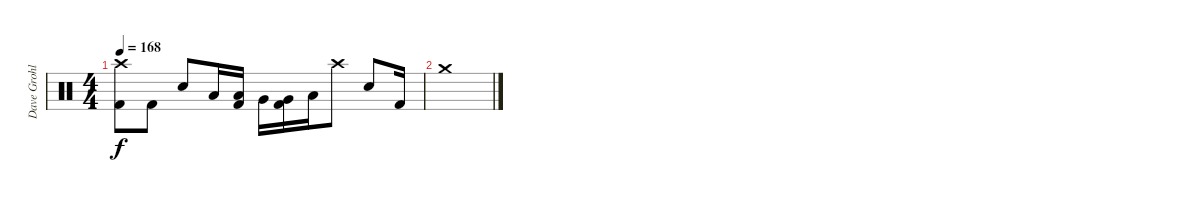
\track ("Dave Grohl - Drums" "Dave Grohl") {instrument percussion}
\staff {score}
\articulation defaults
\ts (4 4)
\tempo 168
\clef neutral
\ks c
("Crash high (hit)" "Kick (hit) 2").8{dy f} "Kick (hit) 2".8 "Electric Snare (hit)".8 "Low Tom (hit)".16 ("Low Tom (hit)" "Kick (hit) 2").16 "Very Low Tom (hit)".16 ("Very Low Tom (hit)" "Kick (hit) 2").16 "Low Floor Tom (hit)".16 "Crash high (hit)".8 "Electric Snare (hit)".8 "Kick (hit) 2".16 |
"Crash medium (hit)".1
